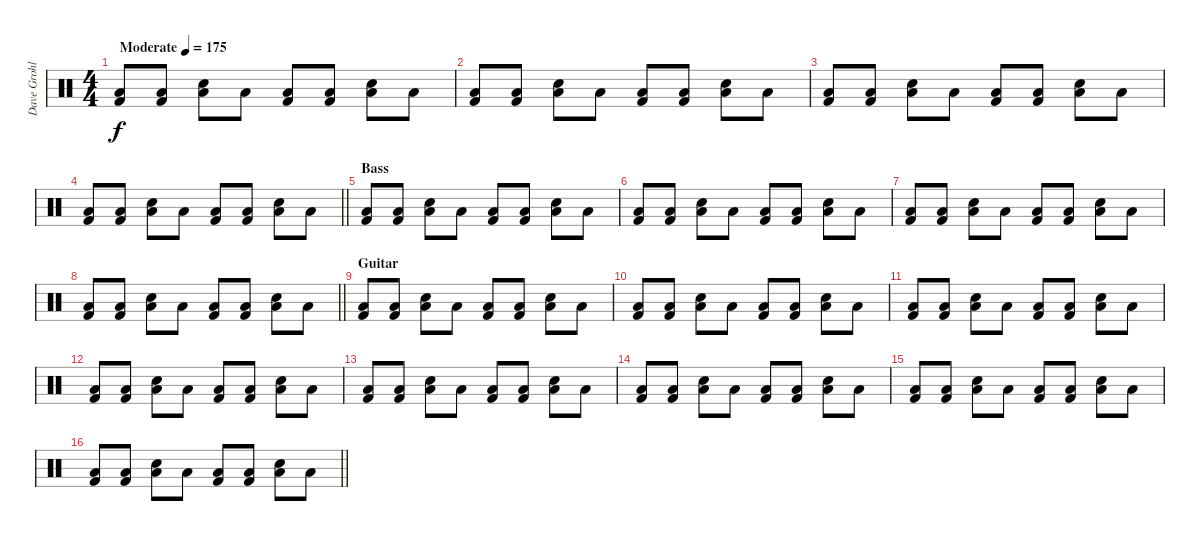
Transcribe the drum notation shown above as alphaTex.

\track ("Dave Grohl" "Dave Grohl") {solo instrument percussion}
\staff {score}
\articulation defaults
\ts (4 4)
\tempo (175 "Moderate")
\clef neutral
\ks c
("Low Tom (hit)" "Kick (hit) 2").8{dy f} ("Low Tom (hit)" "Kick (hit) 2").8 ("Electric Snare (hit)" "Low Tom (hit)").8 "Low Tom (hit)".8 ("Low Tom (hit)" "Kick (hit) 2").8 ("Low Tom (hit)" "Kick (hit) 2").8 ("Electric Snare (hit)" "Low Tom (hit)").8 "Low Tom (hit)".8 |
("Low Tom (hit)" "Kick (hit) 2").8 ("Low Tom (hit)" "Kick (hit) 2").8 ("Electric Snare (hit)" "Low Tom (hit)").8 "Low Tom (hit)".8 ("Low Tom (hit)" "Kick (hit) 2").8 ("Low Tom (hit)" "Kick (hit) 2").8 ("Electric Snare (hit)" "Low Tom (hit)").8 "Low Tom (hit)".8 |
("Low Tom (hit)" "Kick (hit) 2").8 ("Low Tom (hit)" "Kick (hit) 2").8 ("Electric Snare (hit)" "Low Tom (hit)").8 "Low Tom (hit)".8 ("Low Tom (hit)" "Kick (hit) 2").8 ("Low Tom (hit)" "Kick (hit) 2").8 ("Electric Snare (hit)" "Low Tom (hit)").8 "Low Tom (hit)".8 |
\barLineRight lightlight
("Low Tom (hit)" "Kick (hit) 2").8 ("Low Tom (hit)" "Kick (hit) 2").8 ("Electric Snare (hit)" "Low Tom (hit)").8 "Low Tom (hit)".8 ("Low Tom (hit)" "Kick (hit) 2").8 ("Low Tom (hit)" "Kick (hit) 2").8 ("Electric Snare (hit)" "Low Tom (hit)").8 "Low Tom (hit)".8 |
\section ("" "Bass")
("Low Tom (hit)" "Kick (hit) 2").8 ("Low Tom (hit)" "Kick (hit) 2").8 ("Electric Snare (hit)" "Low Tom (hit)").8 "Low Tom (hit)".8 ("Low Tom (hit)" "Kick (hit) 2").8 ("Low Tom (hit)" "Kick (hit) 2").8 ("Electric Snare (hit)" "Low Tom (hit)").8 "Low Tom (hit)".8 |
("Low Tom (hit)" "Kick (hit) 2").8 ("Low Tom (hit)" "Kick (hit) 2").8 ("Electric Snare (hit)" "Low Tom (hit)").8 "Low Tom (hit)".8 ("Low Tom (hit)" "Kick (hit) 2").8 ("Low Tom (hit)" "Kick (hit) 2").8 ("Electric Snare (hit)" "Low Tom (hit)").8 "Low Tom (hit)".8 |
("Low Tom (hit)" "Kick (hit) 2").8 ("Low Tom (hit)" "Kick (hit) 2").8 ("Electric Snare (hit)" "Low Tom (hit)").8 "Low Tom (hit)".8 ("Low Tom (hit)" "Kick (hit) 2").8 ("Low Tom (hit)" "Kick (hit) 2").8 ("Electric Snare (hit)" "Low Tom (hit)").8 "Low Tom (hit)".8 |
\barLineRight lightlight
("Low Tom (hit)" "Kick (hit) 2").8 ("Low Tom (hit)" "Kick (hit) 2").8 ("Electric Snare (hit)" "Low Tom (hit)").8 "Low Tom (hit)".8 ("Low Tom (hit)" "Kick (hit) 2").8 ("Low Tom (hit)" "Kick (hit) 2").8 ("Electric Snare (hit)" "Low Tom (hit)").8 "Low Tom (hit)".8 |
\section ("" "Guitar")
("Low Tom (hit)" "Kick (hit) 2").8 ("Low Tom (hit)" "Kick (hit) 2").8 ("Electric Snare (hit)" "Low Tom (hit)").8 "Low Tom (hit)".8 ("Low Tom (hit)" "Kick (hit) 2").8 ("Low Tom (hit)" "Kick (hit) 2").8 ("Electric Snare (hit)" "Low Tom (hit)").8 "Low Tom (hit)".8 |
("Low Tom (hit)" "Kick (hit) 2").8 ("Low Tom (hit)" "Kick (hit) 2").8 ("Electric Snare (hit)" "Low Tom (hit)").8 "Low Tom (hit)".8 ("Low Tom (hit)" "Kick (hit) 2").8 ("Low Tom (hit)" "Kick (hit) 2").8 ("Electric Snare (hit)" "Low Tom (hit)").8 "Low Tom (hit)".8 |
("Low Tom (hit)" "Kick (hit) 2").8 ("Low Tom (hit)" "Kick (hit) 2").8 ("Electric Snare (hit)" "Low Tom (hit)").8 "Low Tom (hit)".8 ("Low Tom (hit)" "Kick (hit) 2").8 ("Low Tom (hit)" "Kick (hit) 2").8 ("Electric Snare (hit)" "Low Tom (hit)").8 "Low Tom (hit)".8 |
("Low Tom (hit)" "Kick (hit) 2").8 ("Low Tom (hit)" "Kick (hit) 2").8 ("Electric Snare (hit)" "Low Tom (hit)").8 "Low Tom (hit)".8 ("Low Tom (hit)" "Kick (hit) 2").8 ("Low Tom (hit)" "Kick (hit) 2").8 ("Electric Snare (hit)" "Low Tom (hit)").8 "Low Tom (hit)".8 |
("Low Tom (hit)" "Kick (hit) 2").8 ("Low Tom (hit)" "Kick (hit) 2").8 ("Electric Snare (hit)" "Low Tom (hit)").8 "Low Tom (hit)".8 ("Low Tom (hit)" "Kick (hit) 2").8 ("Low Tom (hit)" "Kick (hit) 2").8 ("Electric Snare (hit)" "Low Tom (hit)").8 "Low Tom (hit)".8 |
("Low Tom (hit)" "Kick (hit) 2").8 ("Low Tom (hit)" "Kick (hit) 2").8 ("Electric Snare (hit)" "Low Tom (hit)").8 "Low Tom (hit)".8 ("Low Tom (hit)" "Kick (hit) 2").8 ("Low Tom (hit)" "Kick (hit) 2").8 ("Electric Snare (hit)" "Low Tom (hit)").8 "Low Tom (hit)".8 |
("Low Tom (hit)" "Kick (hit) 2").8 ("Low Tom (hit)" "Kick (hit) 2").8 ("Electric Snare (hit)" "Low Tom (hit)").8 "Low Tom (hit)".8 ("Low Tom (hit)" "Kick (hit) 2").8 ("Low Tom (hit)" "Kick (hit) 2").8 ("Electric Snare (hit)" "Low Tom (hit)").8 "Low Tom (hit)".8 |
\barLineRight lightlight
("Low Tom (hit)" "Kick (hit) 2").8 ("Low Tom (hit)" "Kick (hit) 2").8 ("Electric Snare (hit)" "Low Tom (hit)").8 "Low Tom (hit)".8 ("Low Tom (hit)" "Kick (hit) 2").8 ("Low Tom (hit)" "Kick (hit) 2").8 ("Electric Snare (hit)" "Low Tom (hit)").8 "Low Tom (hit)".8
